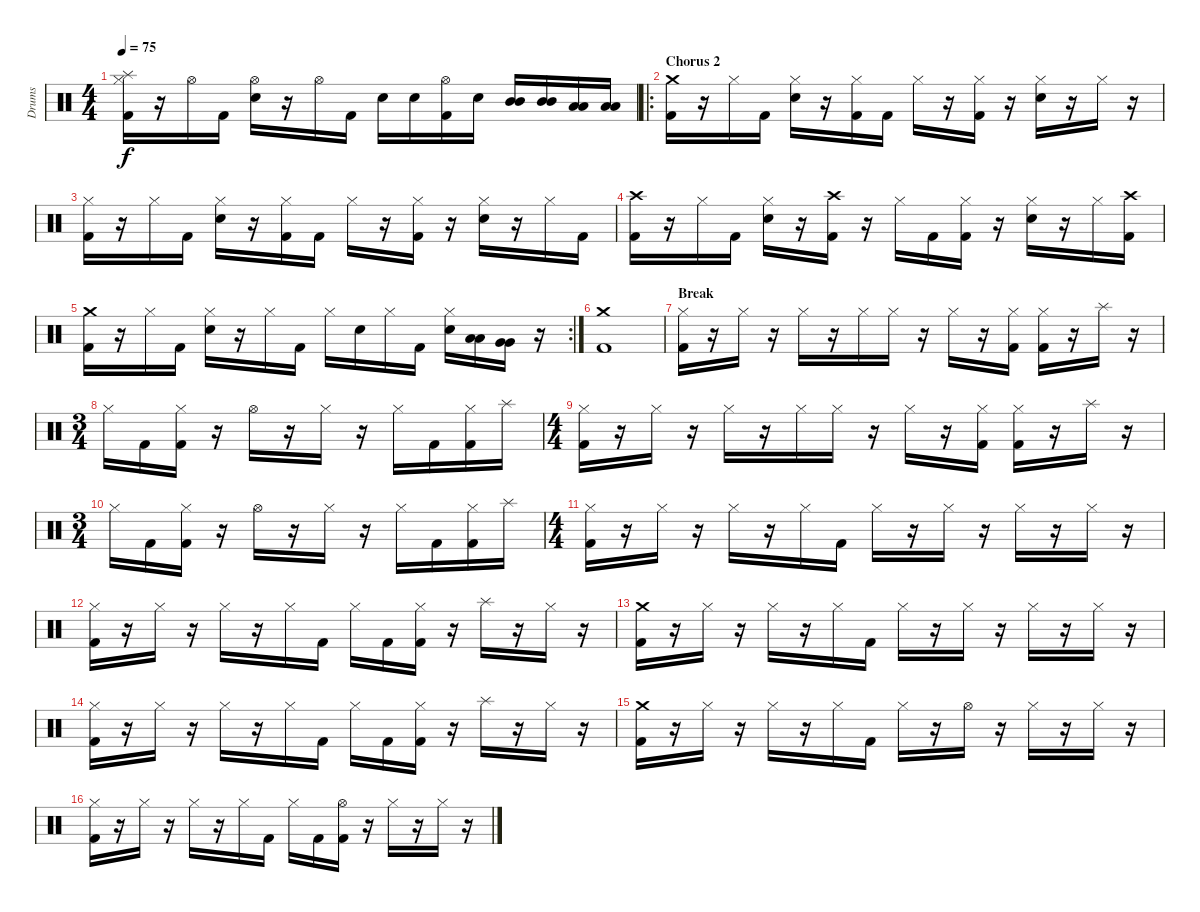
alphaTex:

\track ("Drums" "Drums") {instrument percussion}
\staff {score}
\articulation defaults
\ts (4 4)
\tempo 75
\clef neutral
\ks c
("Hi-Hat (closed)" "Splash (hit)" "Kick (hit) 2").16{dy f} r.16 "Hi-Hat (open)".16 "Kick (hit) 2".16 ("Hi-Hat (open)" "Electric Snare (hit)").16 r.16 "Hi-Hat (open)".16 "Kick (hit) 2".16 "Electric Snare (hit)".16 "Electric Snare (hit)".16 ("Hi-Hat (open)" "Kick (hit) 2").16 "Electric Snare (hit)".16 ("Mid Tom (hit)" "Mid Tom (hit)").16 ("Mid Tom (hit)" "Mid Tom (hit)").16 ("Low Tom (hit)" "Low Tom (hit)").16 ("Low Tom (hit)" "Low Tom (hit)").16 |
\ro
\section ("" "Chorus 2")
("Crash medium (hit)" "Kick (hit) 2").16 r.16 "Hi-Hat (closed)".16 "Kick (hit) 2".16 ("Hi-Hat (closed)" "Electric Snare (hit)").16 r.16 ("Hi-Hat (closed)" "Kick (hit) 2").16 "Kick (hit) 2".16 "Hi-Hat (closed)".16 r.16 ("Hi-Hat (closed)" "Kick (hit) 2").16 r.16 ("Hi-Hat (closed)" "Electric Snare (hit)").16 r.16 "Hi-Hat (closed)".16 r.16 |
("Hi-Hat (closed)" "Kick (hit) 2").16 r.16 "Hi-Hat (closed)".16 "Kick (hit) 2".16 ("Hi-Hat (closed)" "Electric Snare (hit)").16 r.16 ("Hi-Hat (closed)" "Kick (hit) 2").16 "Kick (hit) 2".16 "Hi-Hat (closed)".16 r.16 ("Hi-Hat (closed)" "Kick (hit) 2").16 r.16 ("Hi-Hat (closed)" "Electric Snare (hit)").16 r.16 "Hi-Hat (closed)".16 "Kick (hit) 2".16 |
("Crash high (hit)" "Kick (hit) 2").16 r.16 "Hi-Hat (closed)".16 "Kick (hit) 2".16 ("Hi-Hat (closed)" "Electric Snare (hit)").16 r.16 ("Crash high (hit)" "Kick (hit) 2").16 r.16 "Hi-Hat (closed)".16 "Kick (hit) 2".16 ("Hi-Hat (closed)" "Kick (hit) 2").16 r.16 ("Hi-Hat (closed)" "Electric Snare (hit)").16 r.16 "Hi-Hat (closed)".16 ("Crash high (hit)" "Kick (hit) 2").16 |
\rc 2
("Crash medium (hit)" "Kick (hit) 2").16 r.16 "Hi-Hat (closed)".16 "Kick (hit) 2".16 ("Hi-Hat (closed)" "Electric Snare (hit)").16 r.16 "Hi-Hat (closed)".16 "Kick (hit) 2".16 "Hi-Hat (closed)".16 "Electric Snare (hit)".16 "Hi-Hat (closed)".16 "Kick (hit) 2".16 ("Hi-Hat (closed)" "Electric Snare (hit)").16 ("Low Tom (hit)" "Low Tom (hit)").16 ("Very Low Tom (hit)" "Very Low Tom (hit)").16 r.16 |
("Crash medium (hit)" "Kick (hit) 2").1 |
\section ("" "Break")
("Hi-Hat (closed)" "Kick (hit) 2").16 r.16 "Hi-Hat (closed)".16 r.16 "Hi-Hat (closed)".16 r.16 "Hi-Hat (closed)".16 "Hi-Hat (closed)".16 r.16 "Hi-Hat (closed)".16 r.16 ("Hi-Hat (closed)" "Kick (hit) 2").16 ("Hi-Hat (closed)" "Kick (hit) 2").16 r.16 "Splash (hit)".16 r.16 |
\ts (3 4)
"Hi-Hat (closed)".16 "Kick (hit) 2".16 ("Hi-Hat (closed)" "Kick (hit) 2").16 r.16 "Hi-Hat (open)".16 r.16 "Hi-Hat (closed)".16 r.16 "Hi-Hat (closed)".16 "Kick (hit) 2".16 ("Hi-Hat (closed)" "Kick (hit) 2").16 "Splash (hit)".16 |
\ts (4 4)
("Hi-Hat (closed)" "Kick (hit) 2").16 r.16 "Hi-Hat (closed)".16 r.16 "Hi-Hat (closed)".16 r.16 "Hi-Hat (closed)".16 "Hi-Hat (closed)".16 r.16 "Hi-Hat (closed)".16 r.16 ("Hi-Hat (closed)" "Kick (hit) 2").16 ("Hi-Hat (closed)" "Kick (hit) 2").16 r.16 "Splash (hit)".16 r.16 |
\ts (3 4)
"Hi-Hat (closed)".16 "Kick (hit) 2".16 ("Hi-Hat (closed)" "Kick (hit) 2").16 r.16 "Hi-Hat (open)".16 r.16 "Hi-Hat (closed)".16 r.16 "Hi-Hat (closed)".16 "Kick (hit) 2".16 ("Hi-Hat (closed)" "Kick (hit) 2").16 "Splash (hit)".16 |
\ts (4 4)
("Hi-Hat (closed)" "Kick (hit) 2").16 r.16 "Hi-Hat (closed)".16 r.16 "Hi-Hat (closed)".16 r.16 "Hi-Hat (closed)".16 "Kick (hit) 2".16 "Hi-Hat (closed)".16 r.16 "Hi-Hat (closed)".16 r.16 "Hi-Hat (closed)".16 r.16 "Hi-Hat (closed)".16 r.16 |
("Hi-Hat (closed)" "Kick (hit) 2").16 r.16 "Hi-Hat (closed)".16 r.16 "Hi-Hat (closed)".16 r.16 "Hi-Hat (closed)".16 "Kick (hit) 2".16 "Hi-Hat (closed)".16 "Kick (hit) 2".16 ("Hi-Hat (closed)" "Kick (hit) 2").16 r.16 "Splash (hit)".16 r.16 "Hi-Hat (closed)".16 r.16 |
("Crash medium (hit)" "Kick (hit) 2").16 r.16 "Hi-Hat (closed)".16 r.16 "Hi-Hat (closed)".16 r.16 "Hi-Hat (closed)".16 "Kick (hit) 2".16 "Hi-Hat (closed)".16 r.16 "Hi-Hat (closed)".16 r.16 "Hi-Hat (closed)".16 r.16 "Hi-Hat (closed)".16 r.16 |
("Hi-Hat (closed)" "Kick (hit) 2").16 r.16 "Hi-Hat (closed)".16 r.16 "Hi-Hat (closed)".16 r.16 "Hi-Hat (closed)".16 "Kick (hit) 2".16 "Hi-Hat (closed)".16 "Kick (hit) 2".16 ("Hi-Hat (closed)" "Kick (hit) 2").16 r.16 "Splash (hit)".16 r.16 "Hi-Hat (closed)".16 r.16 |
("Crash medium (hit)" "Kick (hit) 2").16 r.16 "Hi-Hat (closed)".16 r.16 "Hi-Hat (closed)".16 r.16 "Hi-Hat (closed)".16 "Kick (hit) 2".16 "Hi-Hat (closed)".16 r.16 "Hi-Hat (open)".16 r.16 "Hi-Hat (closed)".16 r.16 "Hi-Hat (closed)".16 r.16 |
("Hi-Hat (closed)" "Kick (hit) 2").16 r.16 "Hi-Hat (closed)".16 r.16 "Hi-Hat (closed)".16 r.16 "Hi-Hat (closed)".16 "Kick (hit) 2".16 "Hi-Hat (closed)".16 "Kick (hit) 2".16 ("Hi-Hat (open)" "Kick (hit) 2").16 r.16 "Hi-Hat (closed)".16 r.16 "Hi-Hat (closed)".16 r.16
